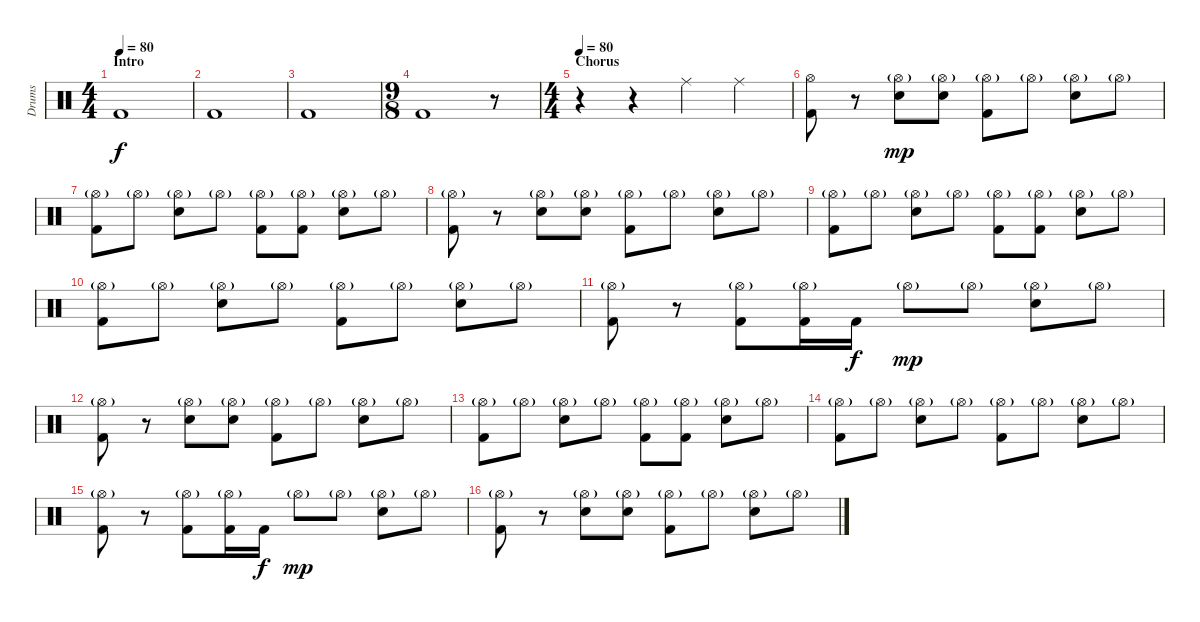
\track ("Drums" "Drums") {instrument percussion}
\staff {score}
\articulation defaults
\ts (4 4)
\section ("" "Intro")
\tempo 80
\tempo 60
\tempo 80
\clef neutral
\ks c "Kick (hit) 2".1{dy f}
|
"Kick (hit) 2".1 |
"Kick (hit) 2".1 |
\ts (9 8)
"Kick (hit) 2".1 r.8 |
\ts (4 4)
\section ("" "Chorus")
\tempo 80
r.4 r.4 "Ride (middle)".4 "Ride (middle)".4 |
("Hi-Hat (open)" "Kick (hit) 2").8 r.8 ("Hi-Hat (open)"{g} "Snare (hit) 2").8{dy mp} ("Hi-Hat (open)"{g} "Snare (hit) 2").8 ("Hi-Hat (open)"{g} "Kick (hit) 2").8 "Hi-Hat (open)"{g}.8 ("Hi-Hat (open)"{g} "Snare (hit) 2").8 "Hi-Hat (open)"{g}.8 |
("Hi-Hat (open)"{g} "Kick (hit) 2").8 "Hi-Hat (open)"{g}.8 ("Hi-Hat (open)"{g} "Snare (hit) 2").8 "Hi-Hat (open)"{g}.8 ("Hi-Hat (open)"{g} "Kick (hit) 2").8 ("Hi-Hat (open)"{g} "Kick (hit) 2").8 ("Hi-Hat (open)"{g} "Snare (hit) 2").8 "Hi-Hat (open)"{g}.8 |
("Hi-Hat (open)"{g} "Kick (hit) 2").8 r.8 ("Hi-Hat (open)"{g} "Snare (hit) 2").8 ("Hi-Hat (open)"{g} "Snare (hit) 2").8 ("Hi-Hat (open)"{g} "Kick (hit) 2").8 "Hi-Hat (open)"{g}.8 ("Hi-Hat (open)"{g} "Snare (hit) 2").8 "Hi-Hat (open)"{g}.8 |
("Hi-Hat (open)"{g} "Kick (hit) 2").8 "Hi-Hat (open)"{g}.8 ("Hi-Hat (open)"{g} "Snare (hit) 2").8 "Hi-Hat (open)"{g}.8 ("Hi-Hat (open)"{g} "Kick (hit) 2").8 ("Hi-Hat (open)"{g} "Kick (hit) 2").8 ("Hi-Hat (open)"{g} "Snare (hit) 2").8 "Hi-Hat (open)"{g}.8 |
("Hi-Hat (open)"{g} "Kick (hit) 2").8 "Hi-Hat (open)"{g}.8 ("Hi-Hat (open)"{g} "Snare (hit) 2").8 "Hi-Hat (open)"{g}.8 ("Hi-Hat (open)"{g} "Kick (hit) 2").8 "Hi-Hat (open)"{g}.8 ("Hi-Hat (open)"{g} "Snare (hit) 2").8 "Hi-Hat (open)"{g}.8 |
("Hi-Hat (open)"{g} "Kick (hit) 2").8 r.8 ("Hi-Hat (open)"{g} "Kick (hit) 2").8 ("Hi-Hat (open)"{g} "Kick (hit) 2").16 "Kick (hit) 2".16{dy f} "Hi-Hat (open)"{g}.8{dy mp} "Hi-Hat (open)"{g}.8 ("Hi-Hat (open)"{g} "Snare (hit) 2").8 "Hi-Hat (open)"{g}.8 |
("Hi-Hat (open)"{g} "Kick (hit) 2").8 r.8 ("Hi-Hat (open)"{g} "Snare (hit) 2").8 ("Hi-Hat (open)"{g} "Snare (hit) 2").8 ("Hi-Hat (open)"{g} "Kick (hit) 2").8 "Hi-Hat (open)"{g}.8 ("Hi-Hat (open)"{g} "Snare (hit) 2").8 "Hi-Hat (open)"{g}.8 |
("Hi-Hat (open)"{g} "Kick (hit) 2").8 "Hi-Hat (open)"{g}.8 ("Hi-Hat (open)"{g} "Snare (hit) 2").8 "Hi-Hat (open)"{g}.8 ("Hi-Hat (open)"{g} "Kick (hit) 2").8 ("Hi-Hat (open)"{g} "Kick (hit) 2").8 ("Hi-Hat (open)"{g} "Snare (hit) 2").8 "Hi-Hat (open)"{g}.8 |
("Hi-Hat (open)"{g} "Kick (hit) 2").8 "Hi-Hat (open)"{g}.8 ("Hi-Hat (open)"{g} "Snare (hit) 2").8 "Hi-Hat (open)"{g}.8 ("Hi-Hat (open)"{g} "Kick (hit) 2").8 "Hi-Hat (open)"{g}.8 ("Hi-Hat (open)"{g} "Snare (hit) 2").8 "Hi-Hat (open)"{g}.8 |
("Hi-Hat (open)"{g} "Kick (hit) 2").8 r.8 ("Hi-Hat (open)"{g} "Kick (hit) 2").8 ("Hi-Hat (open)"{g} "Kick (hit) 2").16 "Kick (hit) 2".16{dy f} "Hi-Hat (open)"{g}.8{dy mp} "Hi-Hat (open)"{g}.8 ("Hi-Hat (open)"{g} "Snare (hit) 2").8 "Hi-Hat (open)"{g}.8 |
("Hi-Hat (open)"{g} "Kick (hit) 2").8 r.8 ("Hi-Hat (open)"{g} "Snare (hit) 2").8 ("Hi-Hat (open)"{g} "Snare (hit) 2").8 ("Hi-Hat (open)"{g} "Kick (hit) 2").8 "Hi-Hat (open)"{g}.8 ("Hi-Hat (open)"{g} "Snare (hit) 2").8 "Hi-Hat (open)"{g}.8
